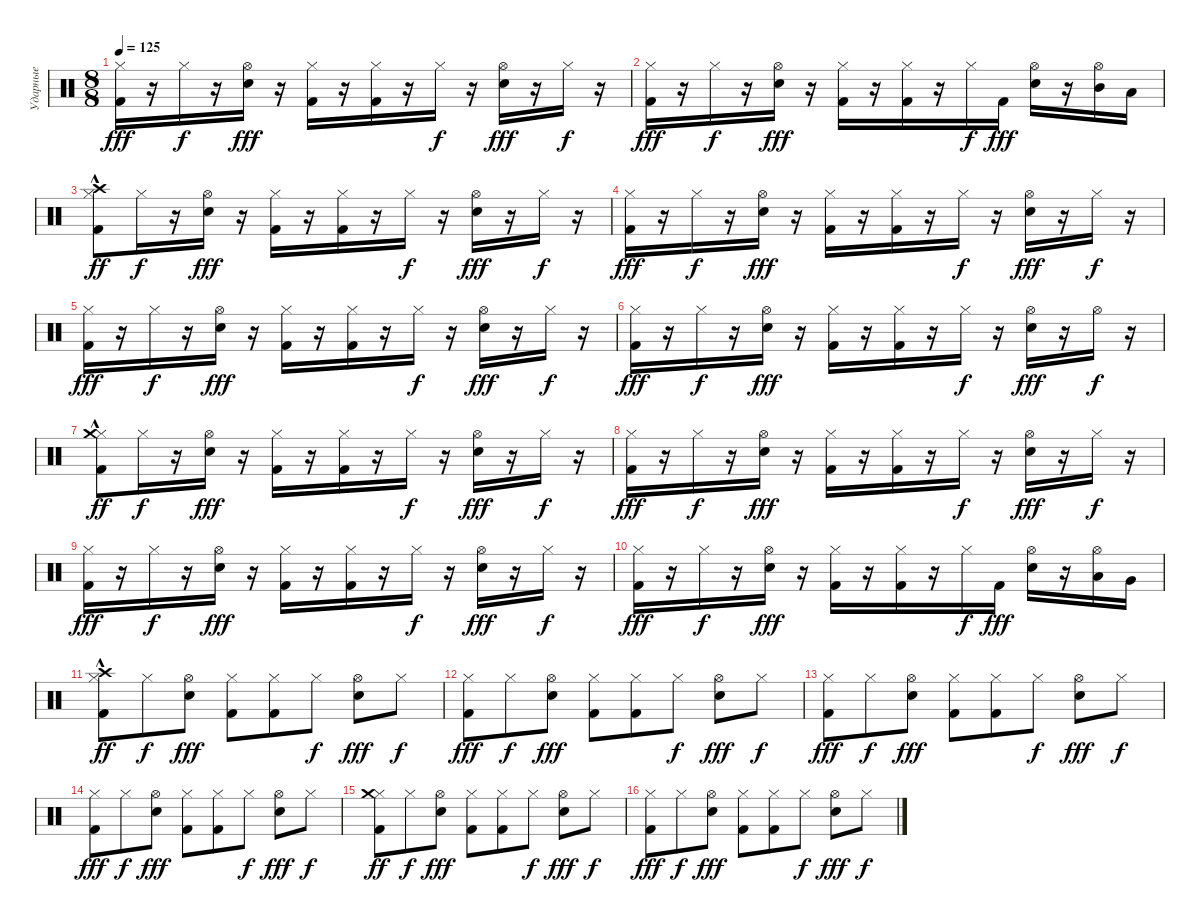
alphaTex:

\track ("Ударные" "Ударные") {instrument percussion}
\staff {score}
\articulation defaults
\ts (8 8)
\tempo 125
\clef neutral
\ks c
("Kick (hit) 2" "Hi-Hat (closed)").16{dy fff} r.16 "Hi-Hat (closed)".16{dy f} r.16 ("Hi-Hat (open)" "Snare (hit) 2").16{dy fff} r.16 ("Kick (hit) 2" "Hi-Hat (closed)").16 r.16 ("Kick (hit) 2" "Hi-Hat (closed)").16 r.16 "Hi-Hat (closed)".16{dy f} r.16 ("Hi-Hat (open)" "Snare (hit) 2").16{dy fff} r.16 "Hi-Hat (closed)".16{dy f} r.16 |
("Kick (hit) 2" "Hi-Hat (closed)").16{dy fff} r.16 "Hi-Hat (closed)".16{dy f} r.16 ("Hi-Hat (open)" "Snare (hit) 2").16{dy fff} r.16 ("Kick (hit) 2" "Hi-Hat (closed)").16 r.16 ("Kick (hit) 2" "Hi-Hat (closed)").16 r.16 "Hi-Hat (closed)".16{dy f} "Kick (hit) 2".16{dy fff} ("Hi-Hat (open)" "Snare (hit) 2").16 r.16 ("Hi-Hat (open)" "Mid Tom (hit)").16 "Low Tom (hit)".16 |
("Kick (hit) 2" "Hi-Hat (closed)" "Crash high (hit)"{hac}).8{dy ff} "Hi-Hat (closed)".16{dy f} r.16 ("Hi-Hat (open)" "Snare (hit) 2").16{dy fff} r.16 ("Kick (hit) 2" "Hi-Hat (closed)").16 r.16 ("Kick (hit) 2" "Hi-Hat (closed)").16 r.16 "Hi-Hat (closed)".16{dy f} r.16 ("Hi-Hat (open)" "Snare (hit) 2").16{dy fff} r.16 "Hi-Hat (closed)".16{dy f} r.16 |
("Kick (hit) 2" "Hi-Hat (closed)").16{dy fff} r.16 "Hi-Hat (closed)".16{dy f} r.16 ("Hi-Hat (open)" "Snare (hit) 2").16{dy fff} r.16 ("Kick (hit) 2" "Hi-Hat (closed)").16 r.16 ("Kick (hit) 2" "Hi-Hat (closed)").16 r.16 "Hi-Hat (closed)".16{dy f} r.16 ("Hi-Hat (open)" "Snare (hit) 2").16{dy fff} r.16 "Hi-Hat (closed)".16{dy f} r.16 |
("Kick (hit) 2" "Hi-Hat (closed)").16{dy fff} r.16 "Hi-Hat (closed)".16{dy f} r.16 ("Hi-Hat (open)" "Snare (hit) 2").16{dy fff} r.16 ("Kick (hit) 2" "Hi-Hat (closed)").16 r.16 ("Kick (hit) 2" "Hi-Hat (closed)").16 r.16 "Hi-Hat (closed)".16{dy f} r.16 ("Hi-Hat (open)" "Snare (hit) 2").16{dy fff} r.16 "Hi-Hat (closed)".16{dy f} r.16 |
("Kick (hit) 2" "Hi-Hat (closed)").16{dy fff} r.16 "Hi-Hat (closed)".16{dy f} r.16 ("Hi-Hat (open)" "Snare (hit) 2").16{dy fff} r.16 ("Kick (hit) 2" "Hi-Hat (closed)").16 r.16 ("Kick (hit) 2" "Hi-Hat (closed)").16 r.16 "Hi-Hat (closed)".16{dy f} r.16 ("Hi-Hat (open)" "Snare (hit) 2").16{dy fff} r.16 "Hi-Hat (open)".16{dy f} r.16 |
("Kick (hit) 2" "Hi-Hat (closed)" "Crash medium (hit)"{hac}).8{dy ff} "Hi-Hat (closed)".16{dy f} r.16 ("Hi-Hat (open)" "Snare (hit) 2").16{dy fff} r.16 ("Kick (hit) 2" "Hi-Hat (closed)").16 r.16 ("Kick (hit) 2" "Hi-Hat (closed)").16 r.16 "Hi-Hat (closed)".16{dy f} r.16 ("Hi-Hat (open)" "Snare (hit) 2").16{dy fff} r.16 "Hi-Hat (closed)".16{dy f} r.16 |
("Kick (hit) 2" "Hi-Hat (closed)").16{dy fff} r.16 "Hi-Hat (closed)".16{dy f} r.16 ("Hi-Hat (open)" "Snare (hit) 2").16{dy fff} r.16 ("Kick (hit) 2" "Hi-Hat (closed)").16 r.16 ("Kick (hit) 2" "Hi-Hat (closed)").16 r.16 "Hi-Hat (closed)".16{dy f} r.16 ("Hi-Hat (open)" "Snare (hit) 2").16{dy fff} r.16 "Hi-Hat (closed)".16{dy f} r.16 |
("Kick (hit) 2" "Hi-Hat (closed)").16{dy fff} r.16 "Hi-Hat (closed)".16{dy f} r.16 ("Hi-Hat (open)" "Snare (hit) 2").16{dy fff} r.16 ("Kick (hit) 2" "Hi-Hat (closed)").16 r.16 ("Kick (hit) 2" "Hi-Hat (closed)").16 r.16 "Hi-Hat (closed)".16{dy f} r.16 ("Hi-Hat (open)" "Snare (hit) 2").16{dy fff} r.16 "Hi-Hat (closed)".16{dy f} r.16 |
("Kick (hit) 2" "Hi-Hat (closed)").16{dy fff} r.16 "Hi-Hat (closed)".16{dy f} r.16 ("Hi-Hat (open)" "Snare (hit) 2").16{dy fff} r.16 ("Kick (hit) 2" "Hi-Hat (closed)").16 r.16 ("Kick (hit) 2" "Hi-Hat (closed)").16 r.16 "Hi-Hat (closed)".16{dy f} "Kick (hit) 2".16{dy fff} ("Hi-Hat (open)" "Snare (hit) 2").16 r.16 ("Hi-Hat (open)" "Low Tom (hit)").16 "Very Low Tom (hit)".16 |
("Kick (hit) 2" "Hi-Hat (closed)" "Crash high (hit)"{hac}).8{dy ff} "Hi-Hat (closed)".8{dy f} ("Hi-Hat (open)" "Snare (hit) 2").8{dy fff} ("Kick (hit) 2" "Hi-Hat (closed)").8 ("Kick (hit) 2" "Hi-Hat (closed)").8 "Hi-Hat (closed)".8{dy f} ("Hi-Hat (open)" "Snare (hit) 2").8{dy fff} "Hi-Hat (closed)".8{dy f} |
("Kick (hit) 2" "Hi-Hat (closed)").8{dy fff} "Hi-Hat (closed)".8{dy f} ("Hi-Hat (open)" "Snare (hit) 2").8{dy fff} ("Kick (hit) 2" "Hi-Hat (closed)").8 ("Kick (hit) 2" "Hi-Hat (closed)").8 "Hi-Hat (closed)".8{dy f} ("Hi-Hat (open)" "Snare (hit) 2").8{dy fff} "Hi-Hat (closed)".8{dy f} |
("Kick (hit) 2" "Hi-Hat (closed)").8{dy fff} "Hi-Hat (closed)".8{dy f} ("Hi-Hat (open)" "Snare (hit) 2").8{dy fff} ("Kick (hit) 2" "Hi-Hat (closed)").8 ("Kick (hit) 2" "Hi-Hat (closed)").8 "Hi-Hat (closed)".8{dy f} ("Hi-Hat (open)" "Snare (hit) 2").8{dy fff} "Hi-Hat (closed)".8{dy f} |
("Kick (hit) 2" "Hi-Hat (closed)").8{dy fff} "Hi-Hat (closed)".8{dy f} ("Hi-Hat (open)" "Snare (hit) 2").8{dy fff} ("Kick (hit) 2" "Hi-Hat (closed)").8 ("Kick (hit) 2" "Hi-Hat (closed)").8 "Hi-Hat (closed)".8{dy f} ("Hi-Hat (open)" "Snare (hit) 2").8{dy fff} "Hi-Hat (closed)".8{dy f} |
("Kick (hit) 2" "Hi-Hat (closed)" "Crash medium (hit)").8{dy ff} "Hi-Hat (closed)".8{dy f} ("Hi-Hat (open)" "Snare (hit) 2").8{dy fff} ("Kick (hit) 2" "Hi-Hat (closed)").8 ("Kick (hit) 2" "Hi-Hat (closed)").8 "Hi-Hat (closed)".8{dy f} ("Hi-Hat (open)" "Snare (hit) 2").8{dy fff} "Hi-Hat (closed)".8{dy f} |
("Kick (hit) 2" "Hi-Hat (closed)").8{dy fff} "Hi-Hat (closed)".8{dy f} ("Hi-Hat (open)" "Snare (hit) 2").8{dy fff} ("Kick (hit) 2" "Hi-Hat (closed)").8 ("Kick (hit) 2" "Hi-Hat (closed)").8 "Hi-Hat (closed)".8{dy f} ("Hi-Hat (open)" "Snare (hit) 2").8{dy fff} "Hi-Hat (closed)".8{dy f}
